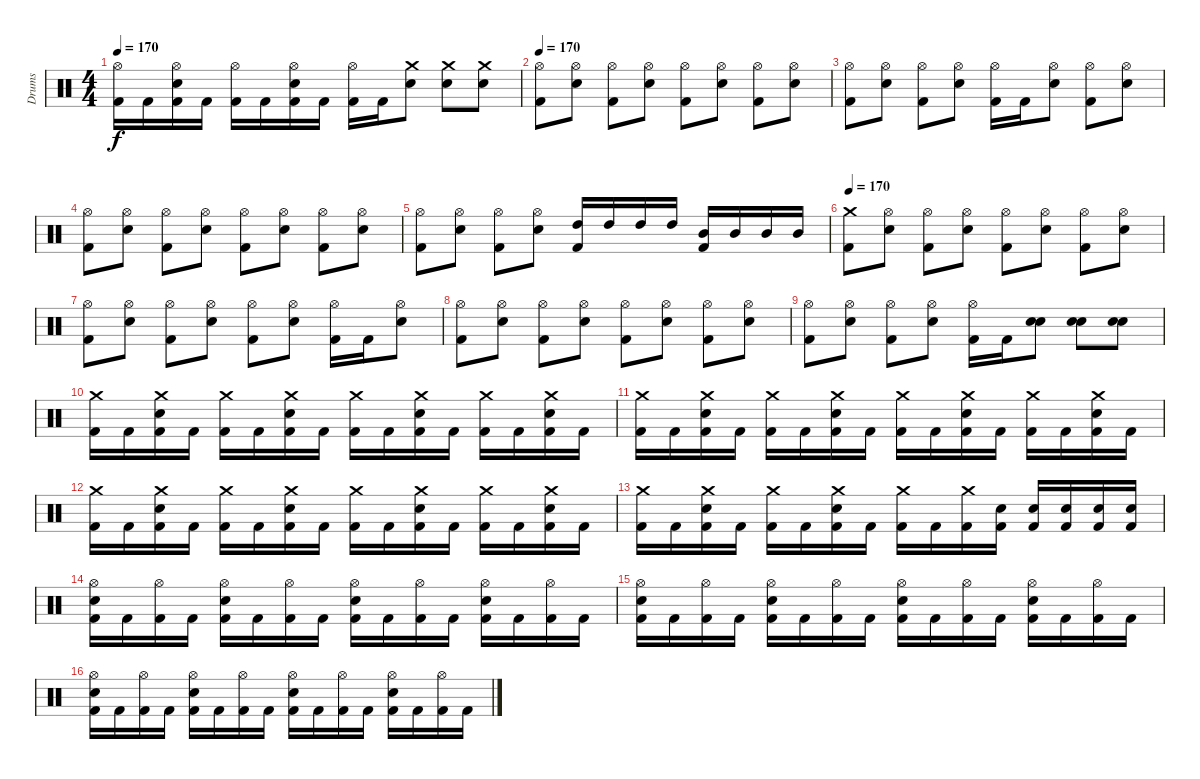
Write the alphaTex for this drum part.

\track ("Drums" "Drums") {instrument percussion}
\staff {score}
\articulation defaults
\ts (4 4)
\tempo 170
\clef neutral
\ks c
("Hi-Hat (open)" "Kick (hit) 2").16{dy f} "Kick (hit) 2".16 ("Hi-Hat (open)" "Electric Snare (hit)" "Kick (hit) 2").16 "Kick (hit) 2".16 ("Hi-Hat (open)" "Kick (hit) 2").16 "Kick (hit) 2".16 ("Hi-Hat (open)" "Electric Snare (hit)" "Kick (hit) 2").16 "Kick (hit) 2".16 ("Hi-Hat (open)" "Kick (hit) 2").16 "Kick (hit) 2".16 ("Crash medium (hit)" "Electric Snare (hit)").8 ("Crash medium (hit)" "Electric Snare (hit)").8 ("Crash medium (hit)" "Electric Snare (hit)").8 |
\tempo 170
("Hi-Hat (open)" "Kick (hit) 2").8 ("Hi-Hat (open)" "Electric Snare (hit)").8 ("Hi-Hat (open)" "Kick (hit) 2").8 ("Hi-Hat (open)" "Electric Snare (hit)").8 ("Hi-Hat (open)" "Kick (hit) 2").8 ("Hi-Hat (open)" "Electric Snare (hit)").8 ("Hi-Hat (open)" "Kick (hit) 2").8 ("Hi-Hat (open)" "Electric Snare (hit)").8 |
("Hi-Hat (open)" "Kick (hit) 2").8 ("Hi-Hat (open)" "Electric Snare (hit)").8 ("Hi-Hat (open)" "Kick (hit) 2").8 ("Hi-Hat (open)" "Electric Snare (hit)").8 ("Hi-Hat (open)" "Kick (hit) 2").16 "Kick (hit) 2".16 ("Hi-Hat (open)" "Electric Snare (hit)").8 ("Hi-Hat (open)" "Kick (hit) 2").8 ("Hi-Hat (open)" "Electric Snare (hit)").8 |
("Hi-Hat (open)" "Kick (hit) 2").8 ("Hi-Hat (open)" "Electric Snare (hit)").8 ("Hi-Hat (open)" "Kick (hit) 2").8 ("Hi-Hat (open)" "Electric Snare (hit)").8 ("Hi-Hat (open)" "Kick (hit) 2").8 ("Hi-Hat (open)" "Electric Snare (hit)").8 ("Hi-Hat (open)" "Kick (hit) 2").8 ("Hi-Hat (open)" "Electric Snare (hit)").8 |
("Hi-Hat (open)" "Kick (hit) 2").8 ("Hi-Hat (open)" "Electric Snare (hit)").8 ("Hi-Hat (open)" "Kick (hit) 2").8 ("Hi-Hat (open)" "Electric Snare (hit)").8 ("High Tom (hit)" "Kick (hit) 2").16 "High Tom (hit)".16 "High Tom (hit)".16 "High Tom (hit)".16 ("Mid Tom (hit)" "Kick (hit) 2").16 "Mid Tom (hit)".16 "Mid Tom (hit)".16 "Mid Tom (hit)".16 |
\tempo 170
("Crash medium (hit)" "Kick (hit) 2").8 ("Hi-Hat (open)" "Electric Snare (hit)").8 ("Hi-Hat (open)" "Kick (hit) 2").8 ("Hi-Hat (open)" "Electric Snare (hit)").8 ("Hi-Hat (open)" "Kick (hit) 2").8 ("Hi-Hat (open)" "Electric Snare (hit)").8 ("Hi-Hat (open)" "Kick (hit) 2").8 ("Hi-Hat (open)" "Electric Snare (hit)").8 |
("Hi-Hat (open)" "Kick (hit) 2").8 ("Hi-Hat (open)" "Electric Snare (hit)").8 ("Hi-Hat (open)" "Kick (hit) 2").8 ("Hi-Hat (open)" "Electric Snare (hit)").8 ("Hi-Hat (open)" "Kick (hit) 2").8 ("Hi-Hat (open)" "Electric Snare (hit)").8 ("Hi-Hat (open)" "Kick (hit) 2").16 "Kick (hit) 2".16 ("Hi-Hat (open)" "Electric Snare (hit)").8 |
("Hi-Hat (open)" "Kick (hit) 2").8 ("Hi-Hat (open)" "Electric Snare (hit)").8 ("Hi-Hat (open)" "Kick (hit) 2").8 ("Hi-Hat (open)" "Electric Snare (hit)").8 ("Hi-Hat (open)" "Kick (hit) 2").8 ("Hi-Hat (open)" "Electric Snare (hit)").8 ("Hi-Hat (open)" "Kick (hit) 2").8 ("Hi-Hat (open)" "Electric Snare (hit)").8 |
("Hi-Hat (open)" "Kick (hit) 2").8 ("Hi-Hat (open)" "Electric Snare (hit)").8 ("Hi-Hat (open)" "Kick (hit) 2").8 ("Hi-Hat (open)" "Electric Snare (hit)").8 ("Hi-Hat (open)" "Kick (hit) 2").16 "Kick (hit) 2".16 ("Electric Snare (hit)" "Electric Snare (hit)").8{bu 120} ("Electric Snare (hit)" "Electric Snare (hit)").8{bu 120} ("Electric Snare (hit)" "Electric Snare (hit)").8{bu 240} |
("Crash medium (hit)" "Kick (hit) 2").16 "Kick (hit) 2".16 ("Crash medium (hit)" "Electric Snare (hit)" "Kick (hit) 2").16 "Kick (hit) 2".16 ("Crash medium (hit)" "Kick (hit) 2").16 "Kick (hit) 2".16 ("Crash medium (hit)" "Electric Snare (hit)" "Kick (hit) 2").16 "Kick (hit) 2".16 ("Crash medium (hit)" "Kick (hit) 2").16 "Kick (hit) 2".16 ("Crash medium (hit)" "Electric Snare (hit)" "Kick (hit) 2").16 "Kick (hit) 2".16 ("Crash medium (hit)" "Kick (hit) 2").16 "Kick (hit) 2".16 ("Crash medium (hit)" "Electric Snare (hit)" "Kick (hit) 2").16 "Kick (hit) 2".16 |
("Crash medium (hit)" "Kick (hit) 2").16 "Kick (hit) 2".16 ("Crash medium (hit)" "Electric Snare (hit)" "Kick (hit) 2").16 "Kick (hit) 2".16 ("Crash medium (hit)" "Kick (hit) 2").16 "Kick (hit) 2".16 ("Crash medium (hit)" "Electric Snare (hit)" "Kick (hit) 2").16 "Kick (hit) 2".16 ("Crash medium (hit)" "Kick (hit) 2").16 "Kick (hit) 2".16 ("Crash medium (hit)" "Electric Snare (hit)" "Kick (hit) 2").16 "Kick (hit) 2".16 ("Crash medium (hit)" "Kick (hit) 2").16 "Kick (hit) 2".16 ("Crash medium (hit)" "Electric Snare (hit)" "Kick (hit) 2").16 "Kick (hit) 2".16 |
("Crash medium (hit)" "Kick (hit) 2").16 "Kick (hit) 2".16 ("Crash medium (hit)" "Electric Snare (hit)" "Kick (hit) 2").16 "Kick (hit) 2".16 ("Crash medium (hit)" "Kick (hit) 2").16 "Kick (hit) 2".16 ("Crash medium (hit)" "Electric Snare (hit)" "Kick (hit) 2").16 "Kick (hit) 2".16 ("Crash medium (hit)" "Kick (hit) 2").16 "Kick (hit) 2".16 ("Crash medium (hit)" "Electric Snare (hit)" "Kick (hit) 2").16 "Kick (hit) 2".16 ("Crash medium (hit)" "Kick (hit) 2").16 "Kick (hit) 2".16 ("Crash medium (hit)" "Electric Snare (hit)" "Kick (hit) 2").16 "Kick (hit) 2".16 |
("Crash medium (hit)" "Kick (hit) 2").16 "Kick (hit) 2".16 ("Crash medium (hit)" "Electric Snare (hit)" "Kick (hit) 2").16 "Kick (hit) 2".16 ("Crash medium (hit)" "Kick (hit) 2").16 "Kick (hit) 2".16 ("Crash medium (hit)" "Electric Snare (hit)" "Kick (hit) 2").16 "Kick (hit) 2".16 ("Crash medium (hit)" "Kick (hit) 2").16 "Kick (hit) 2".16 ("Crash medium (hit)" "Kick (hit) 2").16 ("Electric Snare (hit)" "Kick (hit) 2").16 ("Electric Snare (hit)" "Kick (hit) 2").16 ("Electric Snare (hit)" "Kick (hit) 2").16 ("Electric Snare (hit)" "Kick (hit) 2").16 ("Electric Snare (hit)" "Kick (hit) 2").16 |
("Hi-Hat (open)" "Electric Snare (hit)" "Kick (hit) 2").16 "Kick (hit) 2".16 ("Hi-Hat (open)" "Kick (hit) 2").16 "Kick (hit) 2".16 ("Hi-Hat (open)" "Electric Snare (hit)" "Kick (hit) 2").16 "Kick (hit) 2".16 ("Hi-Hat (open)" "Kick (hit) 2").16 "Kick (hit) 2".16 ("Hi-Hat (open)" "Electric Snare (hit)" "Kick (hit) 2").16 "Kick (hit) 2".16 ("Hi-Hat (open)" "Kick (hit) 2").16 "Kick (hit) 2".16 ("Hi-Hat (open)" "Electric Snare (hit)" "Kick (hit) 2").16 "Kick (hit) 2".16 ("Hi-Hat (open)" "Kick (hit) 2").16 "Kick (hit) 2".16 |
("Hi-Hat (open)" "Electric Snare (hit)" "Kick (hit) 2").16 "Kick (hit) 2".16 ("Hi-Hat (open)" "Kick (hit) 2").16 "Kick (hit) 2".16 ("Hi-Hat (open)" "Electric Snare (hit)" "Kick (hit) 2").16 "Kick (hit) 2".16 ("Hi-Hat (open)" "Kick (hit) 2").16 "Kick (hit) 2".16 ("Hi-Hat (open)" "Electric Snare (hit)" "Kick (hit) 2").16 "Kick (hit) 2".16 ("Hi-Hat (open)" "Kick (hit) 2").16 "Kick (hit) 2".16 ("Hi-Hat (open)" "Electric Snare (hit)" "Kick (hit) 2").16 "Kick (hit) 2".16 ("Hi-Hat (open)" "Kick (hit) 2").16 "Kick (hit) 2".16 |
("Hi-Hat (open)" "Electric Snare (hit)" "Kick (hit) 2").16 "Kick (hit) 2".16 ("Hi-Hat (open)" "Kick (hit) 2").16 "Kick (hit) 2".16 ("Hi-Hat (open)" "Electric Snare (hit)" "Kick (hit) 2").16 "Kick (hit) 2".16 ("Hi-Hat (open)" "Kick (hit) 2").16 "Kick (hit) 2".16 ("Hi-Hat (open)" "Electric Snare (hit)" "Kick (hit) 2").16 "Kick (hit) 2".16 ("Hi-Hat (open)" "Kick (hit) 2").16 "Kick (hit) 2".16 ("Hi-Hat (open)" "Electric Snare (hit)" "Kick (hit) 2").16 "Kick (hit) 2".16 ("Hi-Hat (open)" "Kick (hit) 2").16 "Kick (hit) 2".16
